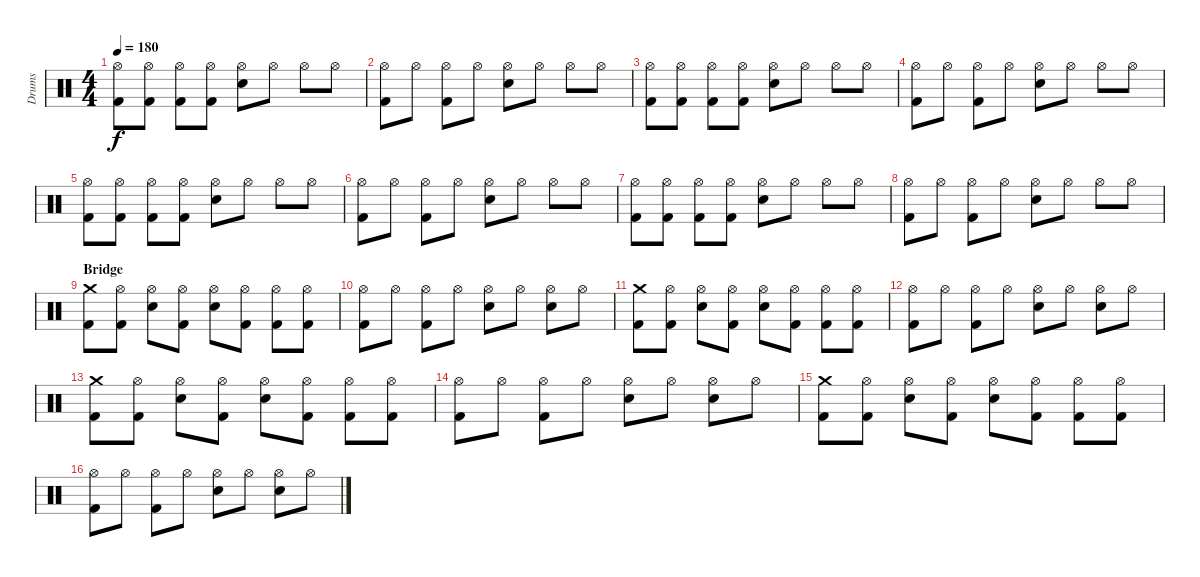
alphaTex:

\track ("Drums" "Drums") {instrument percussion}
\staff {score}
\articulation defaults
\ts (4 4)
\tempo 180
\clef neutral
\ks c
("Hi-Hat (open)" "Kick (hit) 2").8{dy f} ("Hi-Hat (open)" "Kick (hit) 2").8 ("Hi-Hat (open)" "Kick (hit) 2").8 ("Hi-Hat (open)" "Kick (hit) 2").8 ("Hi-Hat (open)" "Electric Snare (hit)").8 "Hi-Hat (open)".8 "Hi-Hat (open)".8 "Hi-Hat (open)".8 |
("Hi-Hat (open)" "Kick (hit) 2").8 "Hi-Hat (open)".8 ("Hi-Hat (open)" "Kick (hit) 2").8 "Hi-Hat (open)".8 ("Hi-Hat (open)" "Electric Snare (hit)").8 "Hi-Hat (open)".8 "Hi-Hat (open)".8 "Hi-Hat (open)".8 |
("Hi-Hat (open)" "Kick (hit) 2").8 ("Hi-Hat (open)" "Kick (hit) 2").8 ("Hi-Hat (open)" "Kick (hit) 2").8 ("Hi-Hat (open)" "Kick (hit) 2").8 ("Hi-Hat (open)" "Electric Snare (hit)").8 "Hi-Hat (open)".8 "Hi-Hat (open)".8 "Hi-Hat (open)".8 |
("Hi-Hat (open)" "Kick (hit) 2").8 "Hi-Hat (open)".8 ("Hi-Hat (open)" "Kick (hit) 2").8 "Hi-Hat (open)".8 ("Hi-Hat (open)" "Electric Snare (hit)").8 "Hi-Hat (open)".8 "Hi-Hat (open)".8 "Hi-Hat (open)".8 |
("Hi-Hat (open)" "Kick (hit) 2").8 ("Hi-Hat (open)" "Kick (hit) 2").8 ("Hi-Hat (open)" "Kick (hit) 2").8 ("Hi-Hat (open)" "Kick (hit) 2").8 ("Hi-Hat (open)" "Electric Snare (hit)").8 "Hi-Hat (open)".8 "Hi-Hat (open)".8 "Hi-Hat (open)".8 |
("Hi-Hat (open)" "Kick (hit) 2").8 "Hi-Hat (open)".8 ("Hi-Hat (open)" "Kick (hit) 2").8 "Hi-Hat (open)".8 ("Hi-Hat (open)" "Electric Snare (hit)").8 "Hi-Hat (open)".8 "Hi-Hat (open)".8 "Hi-Hat (open)".8 |
("Hi-Hat (open)" "Kick (hit) 2").8 ("Hi-Hat (open)" "Kick (hit) 2").8 ("Hi-Hat (open)" "Kick (hit) 2").8 ("Hi-Hat (open)" "Kick (hit) 2").8 ("Hi-Hat (open)" "Electric Snare (hit)").8 "Hi-Hat (open)".8 "Hi-Hat (open)".8 "Hi-Hat (open)".8 |
("Hi-Hat (open)" "Kick (hit) 2").8 "Hi-Hat (open)".8 ("Hi-Hat (open)" "Kick (hit) 2").8 "Hi-Hat (open)".8 ("Hi-Hat (open)" "Electric Snare (hit)").8 "Hi-Hat (open)".8 "Hi-Hat (open)".8 "Hi-Hat (open)".8 |
\section ("" "Bridge")
("Crash medium (hit)" "Kick (hit) 2").8 ("Hi-Hat (open)" "Kick (hit) 2").8 ("Hi-Hat (open)" "Electric Snare (hit)").8 ("Hi-Hat (open)" "Kick (hit) 2").8 ("Hi-Hat (open)" "Electric Snare (hit)").8 ("Hi-Hat (open)" "Kick (hit) 2").8 ("Hi-Hat (open)" "Kick (hit) 2").8 ("Hi-Hat (open)" "Kick (hit) 2").8 |
("Hi-Hat (open)" "Kick (hit) 2").8 "Hi-Hat (open)".8 ("Hi-Hat (open)" "Kick (hit) 2").8 "Hi-Hat (open)".8 ("Hi-Hat (open)" "Electric Snare (hit)").8 "Hi-Hat (open)".8 ("Hi-Hat (open)" "Electric Snare (hit)").8 "Hi-Hat (open)".8 |
("Crash medium (hit)" "Kick (hit) 2").8 ("Hi-Hat (open)" "Kick (hit) 2").8 ("Hi-Hat (open)" "Electric Snare (hit)").8 ("Hi-Hat (open)" "Kick (hit) 2").8 ("Hi-Hat (open)" "Electric Snare (hit)").8 ("Hi-Hat (open)" "Kick (hit) 2").8 ("Hi-Hat (open)" "Kick (hit) 2").8 ("Hi-Hat (open)" "Kick (hit) 2").8 |
("Hi-Hat (open)" "Kick (hit) 2").8 "Hi-Hat (open)".8 ("Hi-Hat (open)" "Kick (hit) 2").8 "Hi-Hat (open)".8 ("Hi-Hat (open)" "Electric Snare (hit)").8 "Hi-Hat (open)".8 ("Hi-Hat (open)" "Electric Snare (hit)").8 "Hi-Hat (open)".8 |
("Crash medium (hit)" "Kick (hit) 2").8 ("Hi-Hat (open)" "Kick (hit) 2").8 ("Hi-Hat (open)" "Electric Snare (hit)").8 ("Hi-Hat (open)" "Kick (hit) 2").8 ("Hi-Hat (open)" "Electric Snare (hit)").8 ("Hi-Hat (open)" "Kick (hit) 2").8 ("Hi-Hat (open)" "Kick (hit) 2").8 ("Hi-Hat (open)" "Kick (hit) 2").8 |
("Hi-Hat (open)" "Kick (hit) 2").8 "Hi-Hat (open)".8 ("Hi-Hat (open)" "Kick (hit) 2").8 "Hi-Hat (open)".8 ("Hi-Hat (open)" "Electric Snare (hit)").8 "Hi-Hat (open)".8 ("Hi-Hat (open)" "Electric Snare (hit)").8 "Hi-Hat (open)".8 |
("Crash medium (hit)" "Kick (hit) 2").8 ("Hi-Hat (open)" "Kick (hit) 2").8 ("Hi-Hat (open)" "Electric Snare (hit)").8 ("Hi-Hat (open)" "Kick (hit) 2").8 ("Hi-Hat (open)" "Electric Snare (hit)").8 ("Hi-Hat (open)" "Kick (hit) 2").8 ("Hi-Hat (open)" "Kick (hit) 2").8 ("Hi-Hat (open)" "Kick (hit) 2").8 |
("Hi-Hat (open)" "Kick (hit) 2").8 "Hi-Hat (open)".8 ("Hi-Hat (open)" "Kick (hit) 2").8 "Hi-Hat (open)".8 ("Hi-Hat (open)" "Electric Snare (hit)").8 "Hi-Hat (open)".8 ("Hi-Hat (open)" "Electric Snare (hit)").8 "Hi-Hat (open)".8
